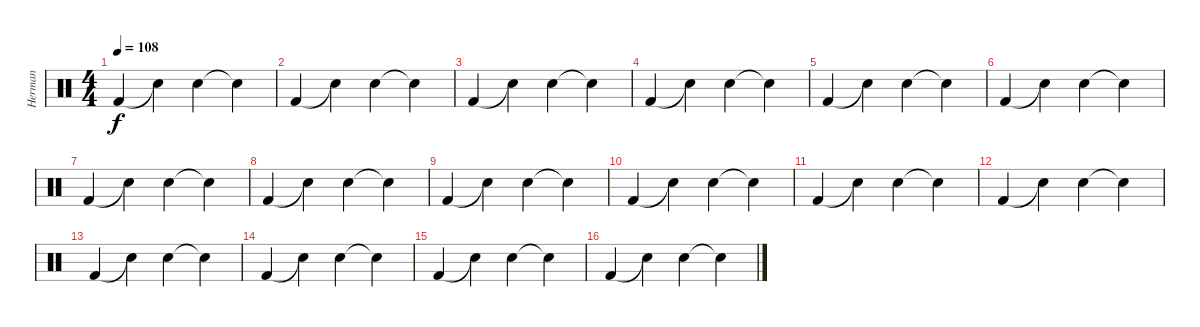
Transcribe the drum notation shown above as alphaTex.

\track ("Herman" "Herman") {instrument percussion}
\staff {score}
\articulation defaults
\ts (4 4)
\tempo 108
\clef neutral
\ks c "Kick (hit) 2".4{dy f} "Snare (hit)"{t}.4 "Snare (hit) 2".4 "Snare (hit)"{t}.4
|
"Kick (hit) 2".4 "Snare (hit)"{t}.4 "Snare (hit) 2".4 "Snare (hit)"{t}.4 |
"Kick (hit) 2".4 "Snare (hit)"{t}.4 "Snare (hit) 2".4 "Snare (hit)"{t}.4 |
"Kick (hit) 2".4 "Snare (hit)"{t}.4 "Snare (hit) 2".4 "Snare (hit)"{t}.4 |
"Kick (hit) 2".4 "Snare (hit)"{t}.4 "Snare (hit) 2".4 "Snare (hit)"{t}.4 |
"Kick (hit) 2".4 "Snare (hit)"{t}.4 "Snare (hit) 2".4 "Snare (hit)"{t}.4 |
"Kick (hit) 2".4 "Snare (hit)"{t}.4 "Snare (hit) 2".4 "Snare (hit)"{t}.4 |
"Kick (hit) 2".4 "Snare (hit)"{t}.4 "Snare (hit) 2".4 "Snare (hit)"{t}.4 |
"Kick (hit) 2".4 "Snare (hit)"{t}.4 "Snare (hit) 2".4 "Snare (hit)"{t}.4 |
"Kick (hit) 2".4 "Snare (hit)"{t}.4 "Snare (hit) 2".4 "Snare (hit)"{t}.4 |
"Kick (hit) 2".4 "Snare (hit)"{t}.4 "Snare (hit) 2".4 "Snare (hit)"{t}.4 |
"Kick (hit) 2".4 "Snare (hit)"{t}.4 "Snare (hit) 2".4 "Snare (hit)"{t}.4 |
"Kick (hit) 2".4 "Snare (hit)"{t}.4 "Snare (hit) 2".4 "Snare (hit)"{t}.4 |
"Kick (hit) 2".4 "Snare (hit)"{t}.4 "Snare (hit) 2".4 "Snare (hit)"{t}.4 |
"Kick (hit) 2".4 "Snare (hit)"{t}.4 "Snare (hit) 2".4 "Snare (hit)"{t}.4 |
"Kick (hit) 2".4 "Snare (hit)"{t}.4 "Snare (hit) 2".4 "Snare (hit)"{t}.4
